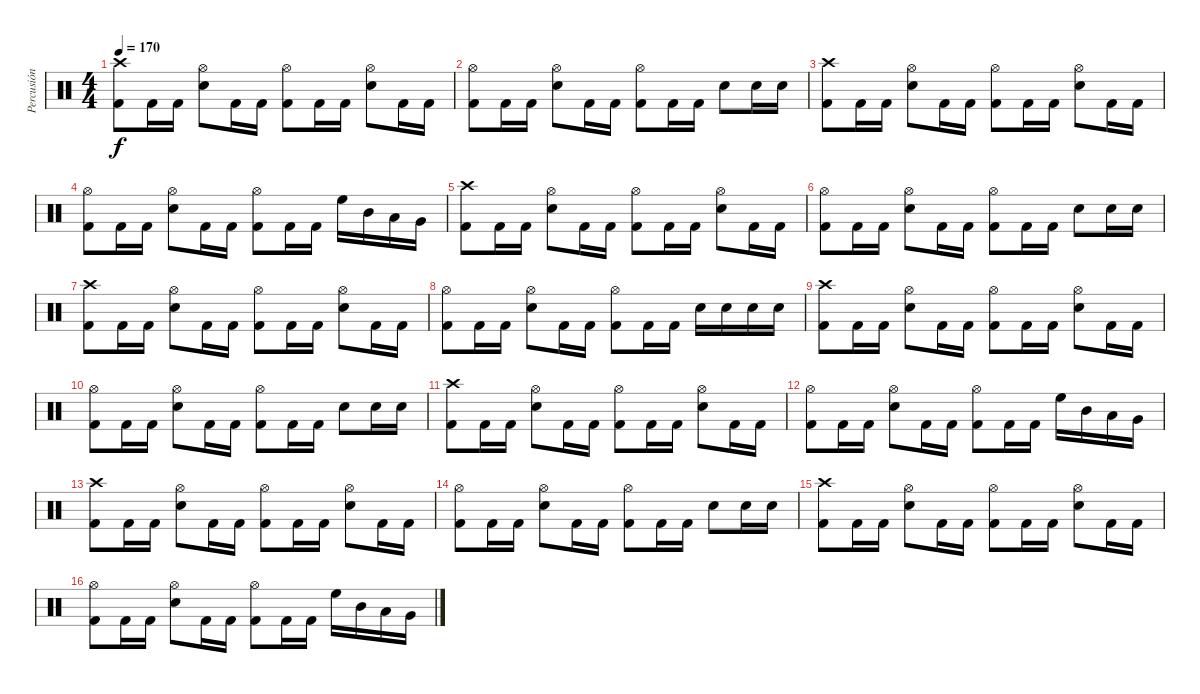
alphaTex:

\track ("Percusión" "Percusión") {instrument percussion}
\staff {score}
\articulation defaults
\ts (4 4)
\tempo 170
\clef neutral
\ks c
("Crash high (hit)" "Kick (hit) 2").8{dy f} "Kick (hit) 2".16 "Kick (hit) 2".16 ("Hi-Hat (open)" "Electric Snare (hit)").8 "Kick (hit) 2".16 "Kick (hit) 2".16 ("Hi-Hat (open)" "Kick (hit) 2").8 "Kick (hit) 2".16 "Kick (hit) 2".16 ("Hi-Hat (open)" "Electric Snare (hit)").8 "Kick (hit) 2".16 "Kick (hit) 2".16 |
("Hi-Hat (open)" "Kick (hit) 2").8 "Kick (hit) 2".16 "Kick (hit) 2".16 ("Hi-Hat (open)" "Electric Snare (hit)").8 "Kick (hit) 2".16 "Kick (hit) 2".16 ("Hi-Hat (open)" "Kick (hit) 2").8 "Kick (hit) 2".16 "Kick (hit) 2".16 "Electric Snare (hit)".8 "Electric Snare (hit)".16 "Electric Snare (hit)".16 |
("Crash high (hit)" "Kick (hit) 2").8 "Kick (hit) 2".16 "Kick (hit) 2".16 ("Hi-Hat (open)" "Electric Snare (hit)").8 "Kick (hit) 2".16 "Kick (hit) 2".16 ("Hi-Hat (open)" "Kick (hit) 2").8 "Kick (hit) 2".16 "Kick (hit) 2".16 ("Hi-Hat (open)" "Electric Snare (hit)").8 "Kick (hit) 2".16 "Kick (hit) 2".16 |
("Hi-Hat (open)" "Kick (hit) 2").8 "Kick (hit) 2".16 "Kick (hit) 2".16 ("Hi-Hat (open)" "Electric Snare (hit)").8 "Kick (hit) 2".16 "Kick (hit) 2".16 ("Hi-Hat (open)" "Kick (hit) 2").8 "Kick (hit) 2".16 "Kick (hit) 2".16 "High Floor Tom (hit)".16 "Mid Tom (hit)".16 "Low Tom (hit)".16 "Very Low Tom (hit)".16 |
("Crash high (hit)" "Kick (hit) 2").8 "Kick (hit) 2".16 "Kick (hit) 2".16 ("Hi-Hat (open)" "Electric Snare (hit)").8 "Kick (hit) 2".16 "Kick (hit) 2".16 ("Hi-Hat (open)" "Kick (hit) 2").8 "Kick (hit) 2".16 "Kick (hit) 2".16 ("Hi-Hat (open)" "Electric Snare (hit)").8 "Kick (hit) 2".16 "Kick (hit) 2".16 |
("Hi-Hat (open)" "Kick (hit) 2").8 "Kick (hit) 2".16 "Kick (hit) 2".16 ("Hi-Hat (open)" "Electric Snare (hit)").8 "Kick (hit) 2".16 "Kick (hit) 2".16 ("Hi-Hat (open)" "Kick (hit) 2").8 "Kick (hit) 2".16 "Kick (hit) 2".16 "Electric Snare (hit)".8 "Electric Snare (hit)".16 "Electric Snare (hit)".16 |
("Crash high (hit)" "Kick (hit) 2").8 "Kick (hit) 2".16 "Kick (hit) 2".16 ("Hi-Hat (open)" "Electric Snare (hit)").8 "Kick (hit) 2".16 "Kick (hit) 2".16 ("Hi-Hat (open)" "Kick (hit) 2").8 "Kick (hit) 2".16 "Kick (hit) 2".16 ("Hi-Hat (open)" "Electric Snare (hit)").8 "Kick (hit) 2".16 "Kick (hit) 2".16 |
("Hi-Hat (open)" "Kick (hit) 2").8 "Kick (hit) 2".16 "Kick (hit) 2".16 ("Hi-Hat (open)" "Electric Snare (hit)").8 "Kick (hit) 2".16 "Kick (hit) 2".16 ("Hi-Hat (open)" "Kick (hit) 2").8 "Kick (hit) 2".16 "Kick (hit) 2".16 "Electric Snare (hit)".16 "Electric Snare (hit)".16 "Electric Snare (hit)".16 "Electric Snare (hit)".16 |
("Crash high (hit)" "Kick (hit) 2").8 "Kick (hit) 2".16 "Kick (hit) 2".16 ("Hi-Hat (open)" "Electric Snare (hit)").8 "Kick (hit) 2".16 "Kick (hit) 2".16 ("Hi-Hat (open)" "Kick (hit) 2").8 "Kick (hit) 2".16 "Kick (hit) 2".16 ("Hi-Hat (open)" "Electric Snare (hit)").8 "Kick (hit) 2".16 "Kick (hit) 2".16 |
("Hi-Hat (open)" "Kick (hit) 2").8 "Kick (hit) 2".16 "Kick (hit) 2".16 ("Hi-Hat (open)" "Electric Snare (hit)").8 "Kick (hit) 2".16 "Kick (hit) 2".16 ("Hi-Hat (open)" "Kick (hit) 2").8 "Kick (hit) 2".16 "Kick (hit) 2".16 "Electric Snare (hit)".8 "Electric Snare (hit)".16 "Electric Snare (hit)".16 |
("Crash high (hit)" "Kick (hit) 2").8 "Kick (hit) 2".16 "Kick (hit) 2".16 ("Hi-Hat (open)" "Electric Snare (hit)").8 "Kick (hit) 2".16 "Kick (hit) 2".16 ("Hi-Hat (open)" "Kick (hit) 2").8 "Kick (hit) 2".16 "Kick (hit) 2".16 ("Hi-Hat (open)" "Electric Snare (hit)").8 "Kick (hit) 2".16 "Kick (hit) 2".16 |
("Hi-Hat (open)" "Kick (hit) 2").8 "Kick (hit) 2".16 "Kick (hit) 2".16 ("Hi-Hat (open)" "Electric Snare (hit)").8 "Kick (hit) 2".16 "Kick (hit) 2".16 ("Hi-Hat (open)" "Kick (hit) 2").8 "Kick (hit) 2".16 "Kick (hit) 2".16 "High Floor Tom (hit)".16 "Mid Tom (hit)".16 "Low Tom (hit)".16 "Very Low Tom (hit)".16 |
("Crash high (hit)" "Kick (hit) 2").8 "Kick (hit) 2".16 "Kick (hit) 2".16 ("Hi-Hat (open)" "Electric Snare (hit)").8 "Kick (hit) 2".16 "Kick (hit) 2".16 ("Hi-Hat (open)" "Kick (hit) 2").8 "Kick (hit) 2".16 "Kick (hit) 2".16 ("Hi-Hat (open)" "Electric Snare (hit)").8 "Kick (hit) 2".16 "Kick (hit) 2".16 |
("Hi-Hat (open)" "Kick (hit) 2").8 "Kick (hit) 2".16 "Kick (hit) 2".16 ("Hi-Hat (open)" "Electric Snare (hit)").8 "Kick (hit) 2".16 "Kick (hit) 2".16 ("Hi-Hat (open)" "Kick (hit) 2").8 "Kick (hit) 2".16 "Kick (hit) 2".16 "Electric Snare (hit)".8 "Electric Snare (hit)".16 "Electric Snare (hit)".16 |
("Crash high (hit)" "Kick (hit) 2").8 "Kick (hit) 2".16 "Kick (hit) 2".16 ("Hi-Hat (open)" "Electric Snare (hit)").8 "Kick (hit) 2".16 "Kick (hit) 2".16 ("Hi-Hat (open)" "Kick (hit) 2").8 "Kick (hit) 2".16 "Kick (hit) 2".16 ("Hi-Hat (open)" "Electric Snare (hit)").8 "Kick (hit) 2".16 "Kick (hit) 2".16 |
("Hi-Hat (open)" "Kick (hit) 2").8 "Kick (hit) 2".16 "Kick (hit) 2".16 ("Hi-Hat (open)" "Electric Snare (hit)").8 "Kick (hit) 2".16 "Kick (hit) 2".16 ("Hi-Hat (open)" "Kick (hit) 2").8 "Kick (hit) 2".16 "Kick (hit) 2".16 "High Floor Tom (hit)".16 "Mid Tom (hit)".16 "Low Tom (hit)".16 "Very Low Tom (hit)".16
